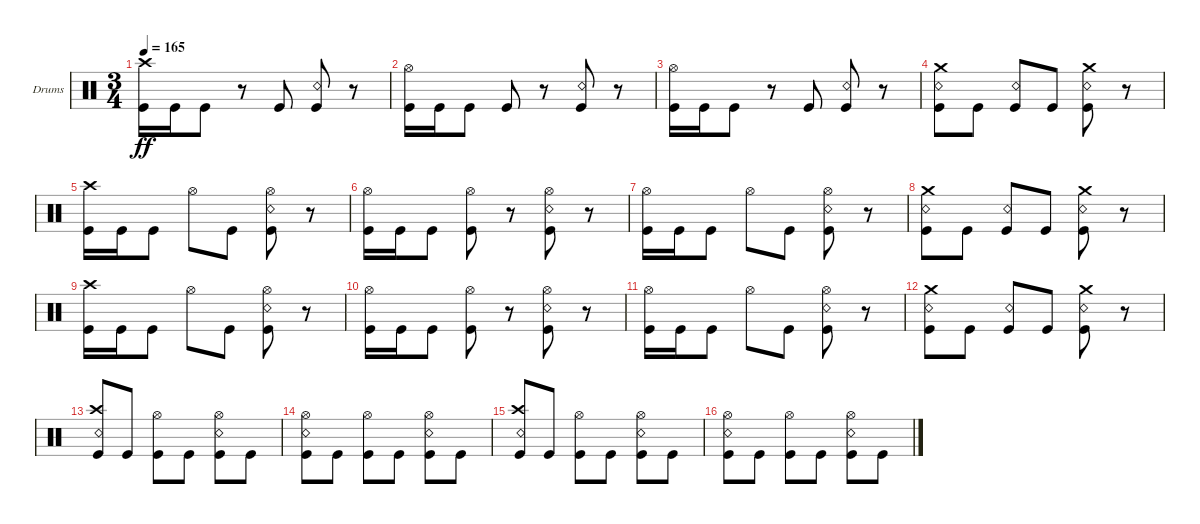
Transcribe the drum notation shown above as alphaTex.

\bracketExtendMode groupsimilarinstruments
\firstSystemTrackNameOrientation horizontal
\otherSystemsTrackNameOrientation horizontal
\track ("Kaleb - Drums" "Drums") {instrument percussion}
\staff {score}
\articulation defaults
\ts (3 4)
\tempo 165
\clef neutral
\ks c
("Kick (hit)" "Crash high (hit)").16{dy ff} "Kick (hit)".16 "Kick (hit)".8 r.8 "Kick (hit)".8 ("Kick (hit)" "Snare (rim shot)").8 r.8 |
("Kick (hit)" "Hi-Hat (open)").16 "Kick (hit)".16 "Kick (hit)".8 "Kick (hit)".8 r.8 ("Kick (hit)" "Snare (rim shot)").8 r.8 |
("Kick (hit)" "Hi-Hat (open)").16 "Kick (hit)".16 "Kick (hit)".8 r.8 "Kick (hit)".8 ("Kick (hit)" "Snare (rim shot)").8 r.8 |
("Kick (hit)" "Crash medium (hit)" "Snare (rim shot)").8 "Kick (hit)".8 ("Kick (hit)" "Snare (rim shot)").8 "Kick (hit)".8 ("Kick (hit)" "Crash medium (hit)" "Snare (rim shot)").8 r.8 |
("Kick (hit)" "Crash high (hit)").16 "Kick (hit)".16 "Kick (hit)".8 "Hi-Hat (open)".8 "Kick (hit)".8 ("Kick (hit)" "Snare (rim shot)" "Hi-Hat (open)").8 r.8 |
("Kick (hit)" "Hi-Hat (open)").16 "Kick (hit)".16 "Kick (hit)".8 ("Kick (hit)" "Hi-Hat (open)").8 r.8 ("Kick (hit)" "Snare (rim shot)" "Hi-Hat (open)").8 r.8 |
("Kick (hit)" "Hi-Hat (open)").16 "Kick (hit)".16 "Kick (hit)".8 "Hi-Hat (open)".8 "Kick (hit)".8 ("Kick (hit)" "Snare (rim shot)" "Hi-Hat (open)").8 r.8 |
("Kick (hit)" "Crash medium (hit)" "Snare (rim shot)").8 "Kick (hit)".8 ("Kick (hit)" "Snare (rim shot)").8 "Kick (hit)".8 ("Kick (hit)" "Crash medium (hit)" "Snare (rim shot)").8 r.8 |
("Kick (hit)" "Crash high (hit)").16 "Kick (hit)".16 "Kick (hit)".8 "Hi-Hat (open)".8 "Kick (hit)".8 ("Kick (hit)" "Snare (rim shot)" "Hi-Hat (open)").8 r.8 |
("Kick (hit)" "Hi-Hat (open)").16 "Kick (hit)".16 "Kick (hit)".8 ("Kick (hit)" "Hi-Hat (open)").8 r.8 ("Kick (hit)" "Snare (rim shot)" "Hi-Hat (open)").8 r.8 |
("Kick (hit)" "Hi-Hat (open)").16 "Kick (hit)".16 "Kick (hit)".8 "Hi-Hat (open)".8 "Kick (hit)".8 ("Kick (hit)" "Snare (rim shot)" "Hi-Hat (open)").8 r.8 |
("Kick (hit)" "Crash medium (hit)" "Snare (rim shot)").8 "Kick (hit)".8 ("Kick (hit)" "Snare (rim shot)").8 "Kick (hit)".8 ("Kick (hit)" "Crash medium (hit)" "Snare (rim shot)").8 r.8 |
("Kick (hit)" "Snare (rim shot)" "Crash high (hit)").8 "Kick (hit)".8 ("Kick (hit)" "Hi-Hat (open)").8 "Kick (hit)".8 ("Kick (hit)" "Snare (rim shot)" "Hi-Hat (open)").8 "Kick (hit)".8 |
("Kick (hit)" "Snare (rim shot)" "Hi-Hat (open)").8 "Kick (hit)".8 ("Kick (hit)" "Hi-Hat (open)").8 "Kick (hit)".8 ("Kick (hit)" "Snare (rim shot)" "Hi-Hat (open)").8 "Kick (hit)".8 |
("Kick (hit)" "Snare (rim shot)" "Crash high (hit)").8 "Kick (hit)".8 ("Kick (hit)" "Hi-Hat (open)").8 "Kick (hit)".8 ("Kick (hit)" "Snare (rim shot)" "Hi-Hat (open)").8 "Kick (hit)".8 |
("Kick (hit)" "Snare (rim shot)" "Hi-Hat (open)").8 "Kick (hit)".8 ("Kick (hit)" "Hi-Hat (open)").8 "Kick (hit)".8 ("Kick (hit)" "Snare (rim shot)" "Hi-Hat (open)").8 "Kick (hit)".8
